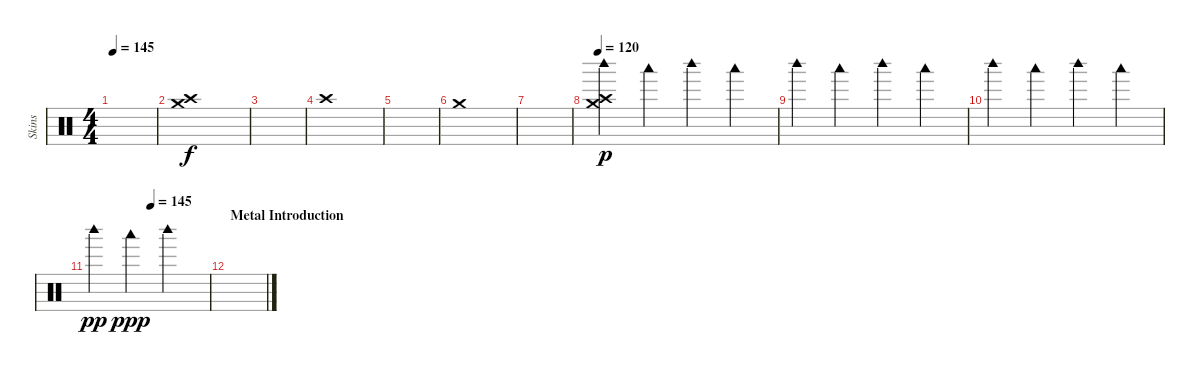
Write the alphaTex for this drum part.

\track ("Skins" "Skins") {instrument percussion}
\staff {score}
\articulation defaults
\ts (4 4)
\tempo 145
\clef neutral
\ks c
|
("Crash high (hit)" "Crash medium (hit)").1 |
|
"Crash high (hit)".1 |
|
"Crash medium (hit)".1 |
|
\tempo 120
("Crash high (hit)" "Crash medium (hit)" "Woodblock high (hit)").4{dy p} "Woodblock low (hit)".4{balance 4} "Woodblock high (hit)".4 "Woodblock low (hit)".4 |
"Woodblock high (hit)".4{volume 4 balance 0} "Woodblock low (hit)".4 "Woodblock high (hit)".4 "Woodblock low (hit)".4 |
"Woodblock high (hit)".4 "Woodblock low (hit)".4 "Woodblock high (hit)".4 "Woodblock low (hit)".4 |
\tempo (145 0.5)
"Woodblock high (hit)".4{dy pp} "Woodblock low (hit)".4{dy ppp} "Woodblock high (hit)".2 |
\section ("" "Metal Introduction")
